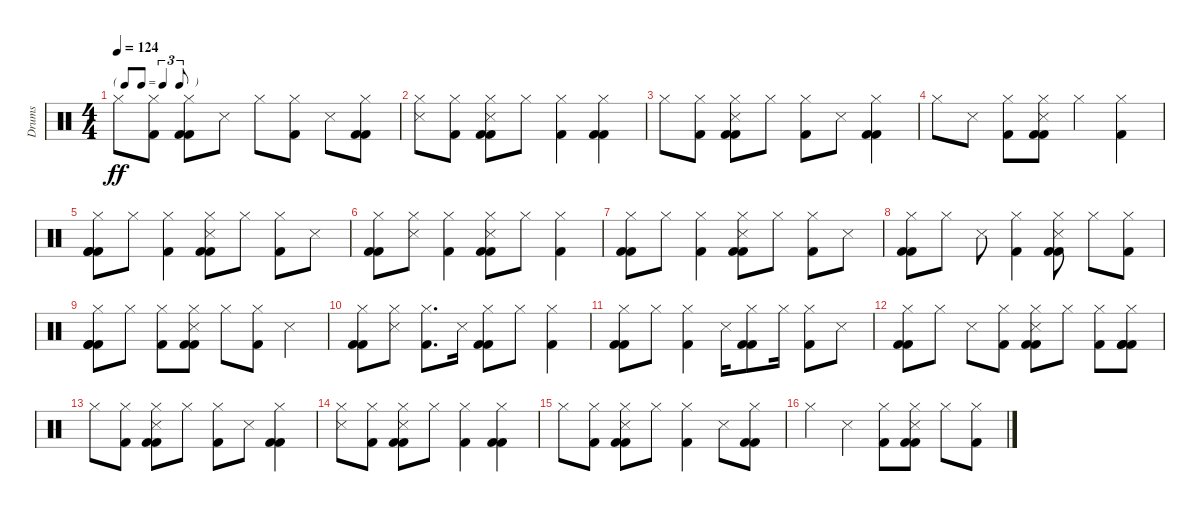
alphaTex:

\track ("Drums" "Drums") {instrument percussion}
\staff {score}
\articulation defaults
\ts (4 4)
\tf triplet8th
\tempo 124
\clef neutral
\ks c "Hi-Hat (closed)".8{dy ff}
("Kick (hit) 2" "Hi-Hat (closed)").8 ("Kick (hit) 2" "Kick (hit) 2" "Hi-Hat (closed)").8 "Snare (side stick) 3".8 "Hi-Hat (closed)".8 ("Kick (hit) 2" "Hi-Hat (closed)").8 "Snare (side stick) 3".8 ("Kick (hit) 2" "Kick (hit) 2" "Hi-Hat (closed)").8 |
("Snare (side stick) 3" "Hi-Hat (closed)").8 ("Kick (hit) 2" "Hi-Hat (closed)").8 ("Snare (side stick) 3" "Kick (hit) 2" "Kick (hit) 2" "Hi-Hat (closed)").8 "Hi-Hat (closed)".8 ("Kick (hit) 2" "Hi-Hat (closed)").4 ("Kick (hit) 2" "Kick (hit) 2" "Hi-Hat (closed)").4 |
"Hi-Hat (closed)".8 ("Kick (hit) 2" "Hi-Hat (closed)").8 ("Snare (side stick) 3" "Kick (hit) 2" "Kick (hit) 2" "Hi-Hat (closed)").8 "Hi-Hat (closed)".8 ("Kick (hit) 2" "Hi-Hat (closed)").8 "Snare (side stick) 3".8 ("Kick (hit) 2" "Kick (hit) 2" "Hi-Hat (closed)").4 |
"Hi-Hat (closed)".8 "Snare (side stick) 3".8 ("Kick (hit) 2" "Hi-Hat (closed)").8 ("Kick (hit) 2" "Kick (hit) 2" "Hi-Hat (closed)" "Snare (side stick) 3").8 "Hi-Hat (closed)".4 ("Kick (hit) 2" "Hi-Hat (closed)").4 |
("Kick (hit) 2" "Kick (hit) 2" "Kick (hit) 2" "Hi-Hat (closed)").8 "Hi-Hat (closed)".8 ("Kick (hit) 2" "Hi-Hat (closed)").4 ("Kick (hit) 2" "Kick (hit) 2" "Hi-Hat (closed)" "Snare (side stick) 3").8 "Hi-Hat (closed)".8 ("Kick (hit) 2" "Hi-Hat (closed)").8 "Snare (side stick) 3".8 |
("Kick (hit) 2" "Kick (hit) 2" "Hi-Hat (closed)").8 ("Snare (side stick) 3" "Hi-Hat (closed)").8 ("Kick (hit) 2" "Hi-Hat (closed)").4 ("Snare (side stick) 3" "Kick (hit) 2" "Kick (hit) 2" "Hi-Hat (closed)").8 "Hi-Hat (closed)".8 ("Kick (hit) 2" "Hi-Hat (closed)").4 |
("Kick (hit) 2" "Kick (hit) 2" "Hi-Hat (closed)").8 "Hi-Hat (closed)".8 ("Kick (hit) 2" "Hi-Hat (closed)").4 ("Snare (side stick) 3" "Kick (hit) 2" "Kick (hit) 2" "Hi-Hat (closed)").8 "Hi-Hat (closed)".8 ("Kick (hit) 2" "Hi-Hat (closed)").8 "Snare (side stick) 3".8 |
("Kick (hit) 2" "Kick (hit) 2" "Hi-Hat (closed)").8 "Hi-Hat (closed)".8 "Snare (side stick) 3".8 ("Kick (hit) 2" "Hi-Hat (closed)").4 ("Kick (hit) 2" "Kick (hit) 2" "Hi-Hat (closed)" "Snare (side stick) 3").8 "Hi-Hat (closed)".8 ("Kick (hit) 2" "Hi-Hat (closed)").8 |
("Kick (hit) 2" "Kick (hit) 2" "Kick (hit) 2" "Hi-Hat (closed)").8 "Hi-Hat (closed)".8 ("Kick (hit) 2" "Hi-Hat (closed)").8 ("Kick (hit) 2" "Kick (hit) 2" "Hi-Hat (closed)" "Snare (side stick) 3").8 "Hi-Hat (closed)".8 ("Kick (hit) 2" "Hi-Hat (closed)").8 "Snare (side stick) 3".4 |
("Kick (hit) 2" "Kick (hit) 2" "Hi-Hat (closed)").8 ("Snare (side stick) 3" "Hi-Hat (closed)").8 ("Kick (hit) 2" "Hi-Hat (closed)").8{d} "Snare (side stick) 3".16 ("Kick (hit) 2" "Kick (hit) 2" "Hi-Hat (closed)").8 "Hi-Hat (closed)".8 ("Kick (hit) 2" "Hi-Hat (closed)").4 |
("Kick (hit) 2" "Kick (hit) 2" "Hi-Hat (closed)").8 "Hi-Hat (closed)".8 ("Kick (hit) 2" "Hi-Hat (closed)").4 "Snare (side stick) 3".16 ("Kick (hit) 2" "Kick (hit) 2" "Hi-Hat (closed)").8 "Hi-Hat (closed)".16 ("Kick (hit) 2" "Hi-Hat (closed)").8 "Snare (side stick) 3".8 |
("Kick (hit) 2" "Kick (hit) 2" "Hi-Hat (closed)").8 "Hi-Hat (closed)".8 "Snare (side stick) 3".8 ("Kick (hit) 2" "Hi-Hat (closed)").8 ("Kick (hit) 2" "Kick (hit) 2" "Hi-Hat (closed)" "Snare (side stick) 3").8 "Hi-Hat (closed)".8 ("Kick (hit) 2" "Hi-Hat (closed)").8 ("Kick (hit) 2" "Kick (hit) 2" "Kick (hit) 2" "Hi-Hat (closed)").8 |
"Hi-Hat (closed)".8 ("Kick (hit) 2" "Hi-Hat (closed)").8 ("Kick (hit) 2" "Kick (hit) 2" "Hi-Hat (closed)" "Snare (side stick) 3").8 "Hi-Hat (closed)".8 ("Kick (hit) 2" "Hi-Hat (closed)").8 "Snare (side stick) 3".8 ("Kick (hit) 2" "Kick (hit) 2" "Hi-Hat (closed)").4 |
("Snare (side stick) 3" "Hi-Hat (closed)").8 ("Kick (hit) 2" "Hi-Hat (closed)").8 ("Snare (side stick) 3" "Kick (hit) 2" "Kick (hit) 2" "Hi-Hat (closed)").8 "Hi-Hat (closed)".8 ("Kick (hit) 2" "Hi-Hat (closed)").4 ("Kick (hit) 2" "Kick (hit) 2" "Hi-Hat (closed)").4 |
"Hi-Hat (closed)".8 ("Kick (hit) 2" "Hi-Hat (closed)").8 ("Snare (side stick) 3" "Kick (hit) 2" "Kick (hit) 2" "Hi-Hat (closed)").8 "Hi-Hat (closed)".8 ("Kick (hit) 2" "Hi-Hat (closed)").4 "Snare (side stick) 3".8 ("Kick (hit) 2" "Kick (hit) 2" "Hi-Hat (closed)").8 |
"Hi-Hat (closed)".4 "Snare (side stick) 3".4 ("Kick (hit) 2" "Hi-Hat (closed)").8 ("Kick (hit) 2" "Kick (hit) 2" "Hi-Hat (closed)" "Snare (side stick) 3").8 "Hi-Hat (closed)".8 ("Kick (hit) 2" "Hi-Hat (closed)").8
